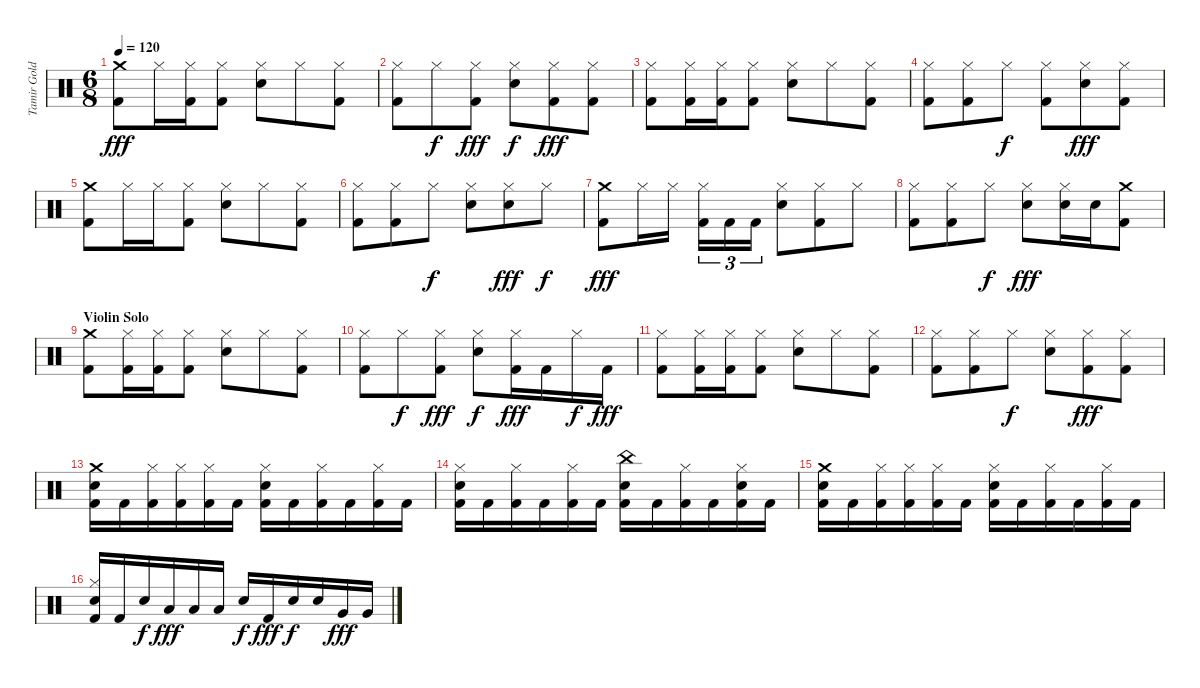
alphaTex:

\track ("Tamir Goldberg" "Tamir Gold") {instrument percussion}
\staff {score}
\articulation defaults
\ts (6 8)
\tempo 120
\clef neutral
\ks c
("Crash medium (hit)" "Kick (hit) 2").8{dy fff} "Hi-Hat (closed)".16 ("Hi-Hat (closed)" "Kick (hit) 2").16 ("Hi-Hat (closed)" "Kick (hit) 2").8 ("Hi-Hat (closed)" "Electric Snare (hit)").8 "Hi-Hat (closed)".8 ("Hi-Hat (closed)" "Kick (hit) 2").8 |
("Hi-Hat (closed)" "Kick (hit) 2").8 "Hi-Hat (closed)".8{dy f} ("Hi-Hat (closed)" "Kick (hit) 2").8{dy fff} ("Hi-Hat (closed)" "Electric Snare (hit)").8{dy f} ("Hi-Hat (closed)" "Kick (hit) 2").8{dy fff} ("Hi-Hat (closed)" "Kick (hit) 2").8 |
("Hi-Hat (closed)" "Kick (hit) 2").8 ("Hi-Hat (closed)" "Kick (hit) 2").16 ("Hi-Hat (closed)" "Kick (hit) 2").16 ("Hi-Hat (closed)" "Kick (hit) 2").8 ("Hi-Hat (closed)" "Electric Snare (hit)").8 "Hi-Hat (closed)".8 ("Hi-Hat (closed)" "Kick (hit) 2").8 |
("Hi-Hat (closed)" "Kick (hit) 2").8 ("Hi-Hat (closed)" "Kick (hit) 2").8 "Hi-Hat (closed)".8{dy f} ("Hi-Hat (closed)" "Kick (hit) 2").8 ("Hi-Hat (closed)" "Electric Snare (hit)").8{dy fff} ("Hi-Hat (closed)" "Kick (hit) 2").8 |
("Crash medium (hit)" "Kick (hit) 2").8 "Hi-Hat (closed)".16 "Hi-Hat (closed)".16 ("Hi-Hat (closed)" "Kick (hit) 2").8 ("Hi-Hat (closed)" "Electric Snare (hit)").8 "Hi-Hat (closed)".8 ("Hi-Hat (closed)" "Kick (hit) 2").8 |
("Hi-Hat (closed)" "Kick (hit) 2").8 ("Hi-Hat (closed)" "Kick (hit) 2").8 "Hi-Hat (closed)".8{dy f} ("Hi-Hat (closed)" "Electric Snare (hit)").8 ("Hi-Hat (closed)" "Electric Snare (hit)").8{dy fff} "Hi-Hat (closed)".8{dy f} |
("Crash medium (hit)" "Kick (hit) 2").8{dy fff} "Hi-Hat (closed)".16 "Hi-Hat (closed)".16 ("Hi-Hat (closed)" "Kick (hit) 2").16{tu (3 2)} "Kick (hit) 2".16{tu (3 2)} "Kick (hit) 2".16{tu (3 2)} ("Hi-Hat (closed)" "Electric Snare (hit)").8 ("Hi-Hat (closed)" "Kick (hit) 2").8 "Hi-Hat (closed)".8 |
("Hi-Hat (closed)" "Kick (hit) 2").8 ("Hi-Hat (closed)" "Kick (hit) 2").8 "Hi-Hat (closed)".8{dy f} ("Hi-Hat (closed)" "Electric Snare (hit)").8{dy fff} ("Hi-Hat (closed)" "Electric Snare (hit)").16 "Electric Snare (hit)".16 ("Crash medium (hit)" "Kick (hit) 2").8 |
\section ("" "Violin Solo")
("Crash medium (hit)" "Kick (hit) 2").8 ("Hi-Hat (closed)" "Kick (hit) 2").16 ("Hi-Hat (closed)" "Kick (hit) 2").16 ("Hi-Hat (closed)" "Kick (hit) 2").8 ("Hi-Hat (closed)" "Electric Snare (hit)").8 "Hi-Hat (closed)".8 ("Hi-Hat (closed)" "Kick (hit) 2").8 |
("Hi-Hat (closed)" "Kick (hit) 2").8 "Hi-Hat (closed)".8{dy f} ("Hi-Hat (closed)" "Kick (hit) 2").8{dy fff} ("Hi-Hat (closed)" "Electric Snare (hit)").8{dy f} ("Hi-Hat (closed)" "Kick (hit) 2").16{dy fff} "Kick (hit) 2".16 "Hi-Hat (closed)".16{dy f} "Kick (hit) 2".16{dy fff} |
("Hi-Hat (closed)" "Kick (hit) 2").8 ("Hi-Hat (closed)" "Kick (hit) 2").16 ("Hi-Hat (closed)" "Kick (hit) 2").16 ("Hi-Hat (closed)" "Kick (hit) 2").8 ("Hi-Hat (closed)" "Electric Snare (hit)").8 "Hi-Hat (closed)".8 ("Hi-Hat (closed)" "Kick (hit) 2").8 |
("Hi-Hat (closed)" "Kick (hit) 2").8 ("Hi-Hat (closed)" "Kick (hit) 2").8 "Hi-Hat (closed)".8{dy f} ("Hi-Hat (closed)" "Electric Snare (hit)").8 ("Hi-Hat (closed)" "Kick (hit) 2").8{dy fff} ("Hi-Hat (closed)" "Kick (hit) 2").8 |
("Crash medium (hit)" "Electric Snare (hit)" "Kick (hit) 2").16 "Kick (hit) 2".16 ("Hi-Hat (closed)" "Kick (hit) 2").16 ("Hi-Hat (closed)" "Kick (hit) 2").16 ("Hi-Hat (closed)" "Kick (hit) 2").16 "Kick (hit) 2".16 ("Hi-Hat (closed)" "Electric Snare (hit)" "Kick (hit) 2").16 "Kick (hit) 2".16 ("Hi-Hat (closed)" "Kick (hit) 2").16 "Kick (hit) 2".16 ("Hi-Hat (closed)" "Kick (hit) 2").16 "Kick (hit) 2".16 |
("Hi-Hat (closed)" "Electric Snare (hit)" "Kick (hit) 2").16 "Kick (hit) 2".16 ("Hi-Hat (closed)" "Kick (hit) 2").16 "Kick (hit) 2".16 ("Hi-Hat (closed)" "Kick (hit) 2").16 "Kick (hit) 2".16 ("China (hit)" "Electric Snare (hit)" "Kick (hit) 2").16 "Kick (hit) 2".16 ("Hi-Hat (closed)" "Kick (hit) 2").16 "Kick (hit) 2".16 ("Hi-Hat (closed)" "Electric Snare (hit)" "Kick (hit) 2").16 "Kick (hit) 2".16 |
("Crash medium (hit)" "Electric Snare (hit)" "Kick (hit) 2").16 "Kick (hit) 2".16 ("Hi-Hat (closed)" "Kick (hit) 2").16 ("Hi-Hat (closed)" "Kick (hit) 2").16 ("Hi-Hat (closed)" "Kick (hit) 2").16 "Kick (hit) 2".16 ("Hi-Hat (closed)" "Electric Snare (hit)" "Kick (hit) 2").16 "Kick (hit) 2".16 ("Hi-Hat (closed)" "Kick (hit) 2").16 "Kick (hit) 2".16 ("Hi-Hat (closed)" "Kick (hit) 2").16 "Kick (hit) 2".16 |
("Hi-Hat (closed)" "Electric Snare (hit)" "Kick (hit) 2").16 "Kick (hit) 2".16 "Electric Snare (hit)".16{dy f} "Low Tom (hit)".16{dy fff} "Low Tom (hit)".16 "Low Tom (hit)".16 "Electric Snare (hit)".16{dy f} "Kick (hit) 2".16{dy fff} "Electric Snare (hit)".16{dy f} "Electric Snare (hit)".16 "Very Low Tom (hit)".16{dy fff} "Very Low Tom (hit)".16
